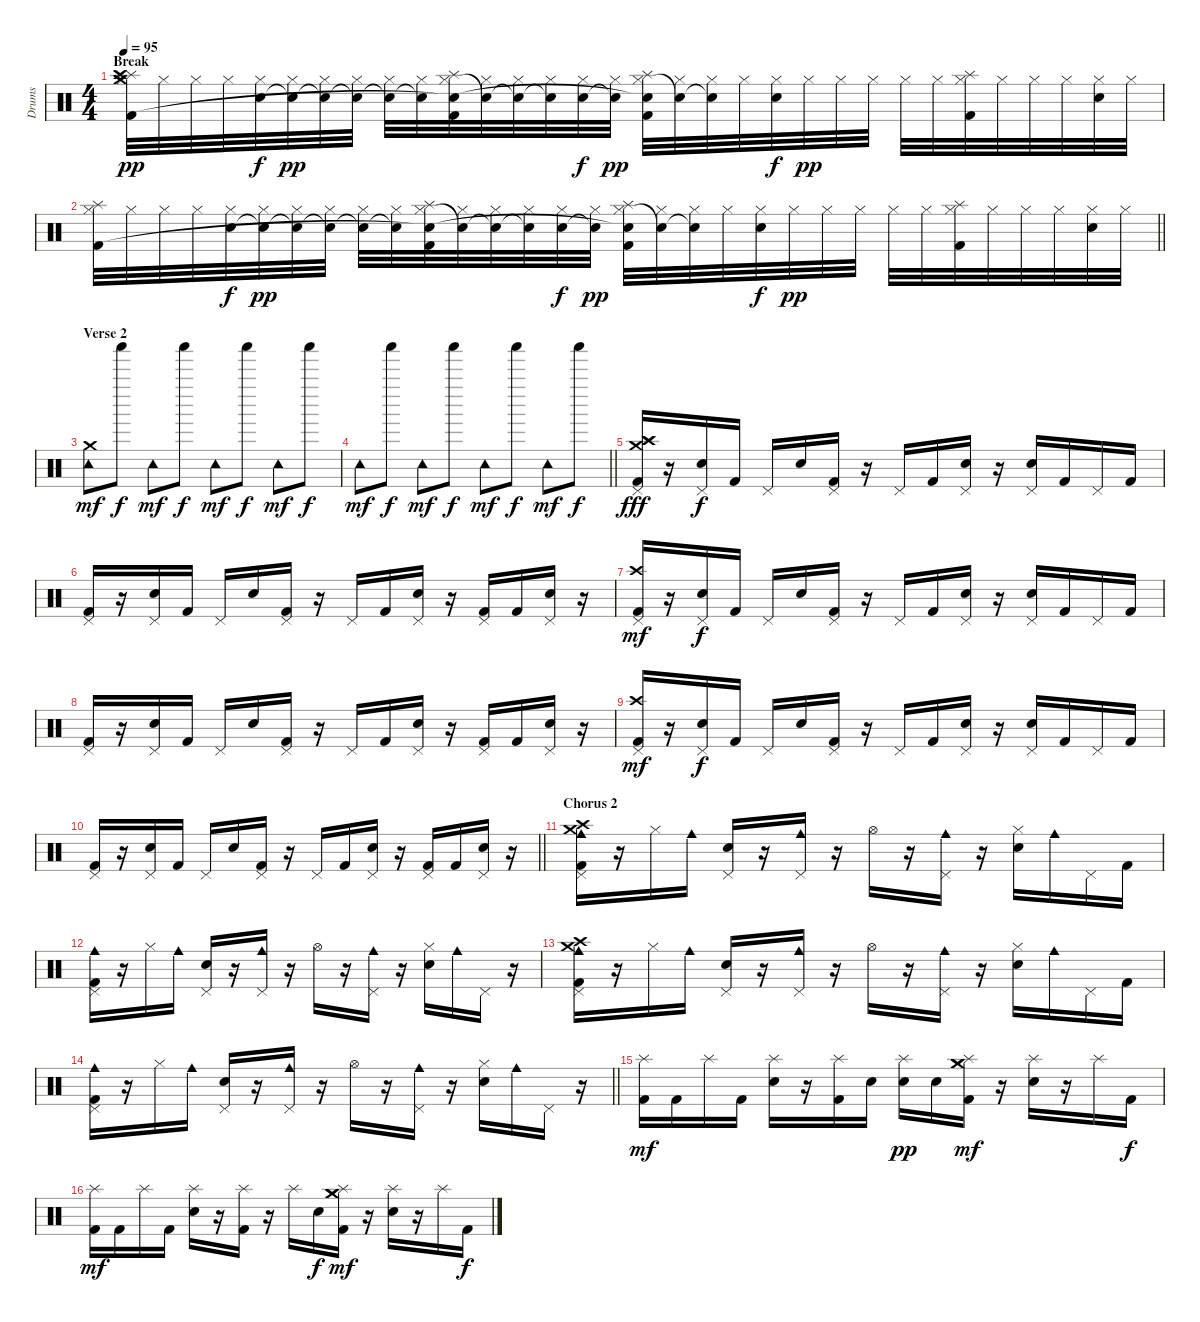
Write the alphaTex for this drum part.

\track ("Drums" "Drums") {instrument percussion}
\staff {score}
\articulation defaults
\ts (4 4)
\section ("" "Break")
\tempo 95
\clef neutral
\ks c
("Splash (hit)" "Hi-Hat (closed)" "Kick (hit) 2" "Crash high (hit)" "Crash medium (hit)").32{dy pp} "Hi-Hat (closed)".32 "Hi-Hat (closed)".32 "Hi-Hat (closed)".32 ("Hi-Hat (closed)" "Snare (hit) 2").32{dy f} ("Hi-Hat (closed)" "Snare (hit) 2"{t}).32{dy pp} ("Hi-Hat (closed)" "Snare (hit)"{t}).32 ("Hi-Hat (closed)" "Snare (hit)"{t}).32 ("Hi-Hat (closed)" "Snare (hit)"{t}).32 ("Hi-Hat (closed)" "Snare (hit)"{t}).32 ("Splash (hit)" "Hi-Hat (closed)" "Snare (hit)"{t} "Kick (hit) 2").32 ("Hi-Hat (closed)" "Snare (hit)"{t}).32 ("Hi-Hat (closed)" "Snare (hit)"{t}).32 ("Hi-Hat (closed)" "Snare (hit)"{t}).32 ("Hi-Hat (closed)" "Snare (hit) 2").32{dy f} ("Hi-Hat (closed)" "Snare (hit)"{t}).32{dy pp} ("Splash (hit)" "Hi-Hat (closed)" "Snare (hit)"{t} "Kick (hit) 2").32 ("Hi-Hat (closed)" "Snare (hit)"{t}).32 ("Hi-Hat (closed)" "Snare (hit)"{t}).32 "Hi-Hat (closed)".32 ("Hi-Hat (closed)" "Snare (hit) 2").32{dy f} "Hi-Hat (closed)".32{dy pp} "Hi-Hat (closed)".32 "Hi-Hat (closed)".32 "Hi-Hat (closed)".32 "Hi-Hat (closed)".32 ("Splash (hit)" "Hi-Hat (closed)" "Kick (hit) 2").32 "Hi-Hat (closed)".32 "Hi-Hat (closed)".32 "Hi-Hat (closed)".32 ("Hi-Hat (closed)" "Snare (hit) 2").32 "Hi-Hat (closed)".32 |
\barLineRight lightlight
("Splash (hit)" "Hi-Hat (closed)" "Kick (hit) 2").32 "Hi-Hat (closed)".32 "Hi-Hat (closed)".32 "Hi-Hat (closed)".32 ("Hi-Hat (closed)" "Snare (hit) 2").32{dy f} ("Hi-Hat (closed)" "Snare (hit) 2"{t}).32{dy pp} ("Hi-Hat (closed)" "Snare (hit)"{t}).32 ("Hi-Hat (closed)" "Snare (hit)"{t}).32 ("Hi-Hat (closed)" "Snare (hit)"{t}).32 ("Hi-Hat (closed)" "Snare (hit)"{t}).32 ("Splash (hit)" "Hi-Hat (closed)" "Snare (hit)"{t} "Kick (hit) 2").32 ("Hi-Hat (closed)" "Snare (hit)"{t}).32 ("Hi-Hat (closed)" "Snare (hit)"{t}).32 ("Hi-Hat (closed)" "Snare (hit)"{t}).32 ("Hi-Hat (closed)" "Snare (hit) 2").32{dy f} ("Hi-Hat (closed)" "Snare (hit)"{t}).32{dy pp} ("Splash (hit)" "Hi-Hat (closed)" "Snare (hit)"{t} "Kick (hit) 2").32 ("Hi-Hat (closed)" "Snare (hit)"{t}).32 ("Hi-Hat (closed)" "Snare (hit)"{t}).32 "Hi-Hat (closed)".32 ("Hi-Hat (closed)" "Snare (hit) 2").32{dy f} "Hi-Hat (closed)".32{dy pp} "Hi-Hat (closed)".32 "Hi-Hat (closed)".32 "Hi-Hat (closed)".32 "Hi-Hat (closed)".32 ("Splash (hit)" "Hi-Hat (closed)" "Kick (hit) 2").32 "Hi-Hat (closed)".32 "Hi-Hat (closed)".32 "Hi-Hat (closed)".32 ("Hi-Hat (closed)" "Snare (hit) 2").32 "Hi-Hat (closed)".32 |
\section ("" "Verse 2")
("Tambourine (hit)" "Crash medium (hit)").8{dy mf} "Shaker (hit)".8{dy f} "Tambourine (hit)".8{dy mf} "Shaker (hit)".8{dy f} "Tambourine (hit)".8{dy mf} "Shaker (hit)".8{dy f} "Tambourine (hit)".8{dy mf} "Shaker (hit)".8{dy f} |
\barLineRight lightlight "Tambourine (hit)".8{dy mf} "Shaker (hit)".8{dy f} "Tambourine (hit)".8{dy mf} "Shaker (hit)".8{dy f} "Tambourine (hit)".8{dy mf} "Shaker (hit)".8{dy f} "Tambourine (hit)".8{dy mf} "Shaker (hit)".8{dy f}
|
("Pedal Hi-Hat (hit)" "Kick (hit) 2" "Crash high (hit)" "Crash medium (hit)" "Crash high (hit)").16{dy fff} r.16 ("Pedal Hi-Hat (hit)" "Snare (hit) 2").16{dy f} "Kick (hit) 2".16 "Pedal Hi-Hat (hit)".16 "Snare (hit) 2".16 ("Pedal Hi-Hat (hit)" "Kick (hit) 2").16 r.16 "Pedal Hi-Hat (hit)".16 "Kick (hit) 2".16 ("Pedal Hi-Hat (hit)" "Snare (hit) 2").16 r.16 ("Pedal Hi-Hat (hit)" "Snare (hit) 2").16 "Kick (hit) 2".16 "Pedal Hi-Hat (hit)".16 "Kick (hit) 2".16 |
("Pedal Hi-Hat (hit)" "Kick (hit) 2").16 r.16 ("Pedal Hi-Hat (hit)" "Snare (hit) 2").16 "Kick (hit) 2".16 "Pedal Hi-Hat (hit)".16 "Snare (hit) 2".16 ("Pedal Hi-Hat (hit)" "Kick (hit) 2").16 r.16 "Pedal Hi-Hat (hit)".16 "Kick (hit) 2".16 ("Pedal Hi-Hat (hit)" "Snare (hit) 2").16 r.16 ("Pedal Hi-Hat (hit)" "Kick (hit) 2").16 "Kick (hit) 2".16 ("Pedal Hi-Hat (hit)" "Snare (hit) 2").16 r.16 |
("Pedal Hi-Hat (hit)" "Kick (hit) 2" "Crash high (hit)").16{dy mf} r.16 ("Pedal Hi-Hat (hit)" "Snare (hit) 2").16{dy f} "Kick (hit) 2".16 "Pedal Hi-Hat (hit)".16 "Snare (hit) 2".16 ("Pedal Hi-Hat (hit)" "Kick (hit) 2").16 r.16 "Pedal Hi-Hat (hit)".16 "Kick (hit) 2".16 ("Pedal Hi-Hat (hit)" "Snare (hit) 2").16 r.16 ("Pedal Hi-Hat (hit)" "Snare (hit) 2").16 "Kick (hit) 2".16 "Pedal Hi-Hat (hit)".16 "Kick (hit) 2".16 |
("Pedal Hi-Hat (hit)" "Kick (hit) 2").16 r.16 ("Pedal Hi-Hat (hit)" "Snare (hit) 2").16 "Kick (hit) 2".16 "Pedal Hi-Hat (hit)".16 "Snare (hit) 2".16 ("Pedal Hi-Hat (hit)" "Kick (hit) 2").16 r.16 "Pedal Hi-Hat (hit)".16 "Kick (hit) 2".16 ("Pedal Hi-Hat (hit)" "Snare (hit) 2").16 r.16 ("Pedal Hi-Hat (hit)" "Kick (hit) 2").16 "Kick (hit) 2".16 ("Pedal Hi-Hat (hit)" "Snare (hit) 2").16 r.16 |
("Pedal Hi-Hat (hit)" "Kick (hit) 2" "Crash high (hit)").16{dy mf} r.16 ("Pedal Hi-Hat (hit)" "Snare (hit) 2").16{dy f} "Kick (hit) 2".16 "Pedal Hi-Hat (hit)".16 "Snare (hit) 2".16 ("Pedal Hi-Hat (hit)" "Kick (hit) 2").16 r.16 "Pedal Hi-Hat (hit)".16 "Kick (hit) 2".16 ("Pedal Hi-Hat (hit)" "Snare (hit) 2").16 r.16 ("Pedal Hi-Hat (hit)" "Snare (hit) 2").16 "Kick (hit) 2".16 "Pedal Hi-Hat (hit)".16 "Kick (hit) 2".16 |
\barLineRight lightlight
("Pedal Hi-Hat (hit)" "Kick (hit) 2").16 r.16 ("Pedal Hi-Hat (hit)" "Snare (hit) 2").16 "Kick (hit) 2".16 "Pedal Hi-Hat (hit)".16 "Snare (hit) 2".16 ("Pedal Hi-Hat (hit)" "Kick (hit) 2").16 r.16 "Pedal Hi-Hat (hit)".16 "Kick (hit) 2".16 ("Pedal Hi-Hat (hit)" "Snare (hit) 2").16 r.16 ("Pedal Hi-Hat (hit)" "Kick (hit) 2").16 "Kick (hit) 2".16 ("Pedal Hi-Hat (hit)" "Snare (hit) 2").16 r.16 |
\section ("" "Chorus 2")
("Pedal Hi-Hat (hit)" "Kick (hit) 2" "Crash high (hit)" "Crash medium (hit)" "Cowbell medium (hit)").16 r.16 "Hi-Hat (closed)".16 "Cowbell medium (hit)".16 ("Pedal Hi-Hat (hit)" "Snare (hit) 2").16 r.16 ("Pedal Hi-Hat (hit)" "Cowbell medium (hit)").16 r.16 "Hi-Hat (open)".16 r.16 ("Pedal Hi-Hat (hit)" "Cowbell medium (hit)").16 r.16 ("Hi-Hat (closed)" "Snare (hit) 2").16 "Cowbell medium (hit)".16 "Pedal Hi-Hat (hit)".16 "Kick (hit) 2".16 |
("Pedal Hi-Hat (hit)" "Kick (hit) 2" "Cowbell medium (hit)").16 r.16 "Hi-Hat (closed)".16 "Cowbell medium (hit)".16 ("Pedal Hi-Hat (hit)" "Snare (hit) 2").16 r.16 ("Pedal Hi-Hat (hit)" "Cowbell medium (hit)").16 r.16 "Hi-Hat (open)".16 r.16 ("Pedal Hi-Hat (hit)" "Cowbell medium (hit)").16 r.16 ("Hi-Hat (closed)" "Snare (hit) 2").16 "Cowbell medium (hit)".16 "Pedal Hi-Hat (hit)".16 r.16 |
("Pedal Hi-Hat (hit)" "Kick (hit) 2" "Crash high (hit)" "Crash medium (hit)" "Cowbell medium (hit)").16 r.16 "Hi-Hat (closed)".16 "Cowbell medium (hit)".16 ("Pedal Hi-Hat (hit)" "Snare (hit) 2").16 r.16 ("Pedal Hi-Hat (hit)" "Cowbell medium (hit)").16 r.16 "Hi-Hat (open)".16 r.16 ("Pedal Hi-Hat (hit)" "Cowbell medium (hit)").16 r.16 ("Hi-Hat (closed)" "Snare (hit) 2").16 "Cowbell medium (hit)".16 "Pedal Hi-Hat (hit)".16 "Kick (hit) 2".16 |
\barLineRight lightlight
("Pedal Hi-Hat (hit)" "Kick (hit) 2" "Cowbell medium (hit)").16 r.16 "Hi-Hat (closed)".16 "Cowbell medium (hit)".16 ("Pedal Hi-Hat (hit)" "Snare (hit) 2").16 r.16 ("Pedal Hi-Hat (hit)" "Cowbell medium (hit)").16 r.16 "Hi-Hat (open)".16 r.16 ("Pedal Hi-Hat (hit)" "Cowbell medium (hit)").16 r.16 ("Hi-Hat (closed)" "Snare (hit) 2").16 "Cowbell medium (hit)".16 "Pedal Hi-Hat (hit)".16 r.16 |
("Splash (hit)" "Kick (hit) 2").16{dy mf} "Kick (hit) 2".16 "Splash (hit)".16 "Kick (hit) 2".16 ("Splash (hit)" "Snare (hit) 2").16 r.16 ("Splash (hit)" "Kick (hit) 2").16 "Snare (hit) 2".16 ("Splash (hit)" "Snare (hit) 2").16{dy pp} "Snare (hit) 2".16 ("Splash (hit)" "Kick (hit) 2" "Crash medium (hit)" "Crash medium (hit)").16{dy mf} r.16 ("Splash (hit)" "Snare (hit) 2").16 r.16 "Splash (hit)".16 "Kick (hit) 2".16{dy f} |
("Splash (hit)" "Kick (hit) 2").16{dy mf} "Kick (hit) 2".16 "Splash (hit)".16 "Kick (hit) 2".16 ("Splash (hit)" "Snare (hit) 2").16 r.16 ("Splash (hit)" "Kick (hit) 2").16 r.16 "Splash (hit)".16 "Snare (hit) 2".16{dy f} ("Splash (hit)" "Kick (hit) 2" "Crash medium (hit)" "Crash medium (hit)").16{dy mf} r.16 ("Splash (hit)" "Snare (hit) 2").16 r.16 "Splash (hit)".16 "Kick (hit) 2".16{dy f}
